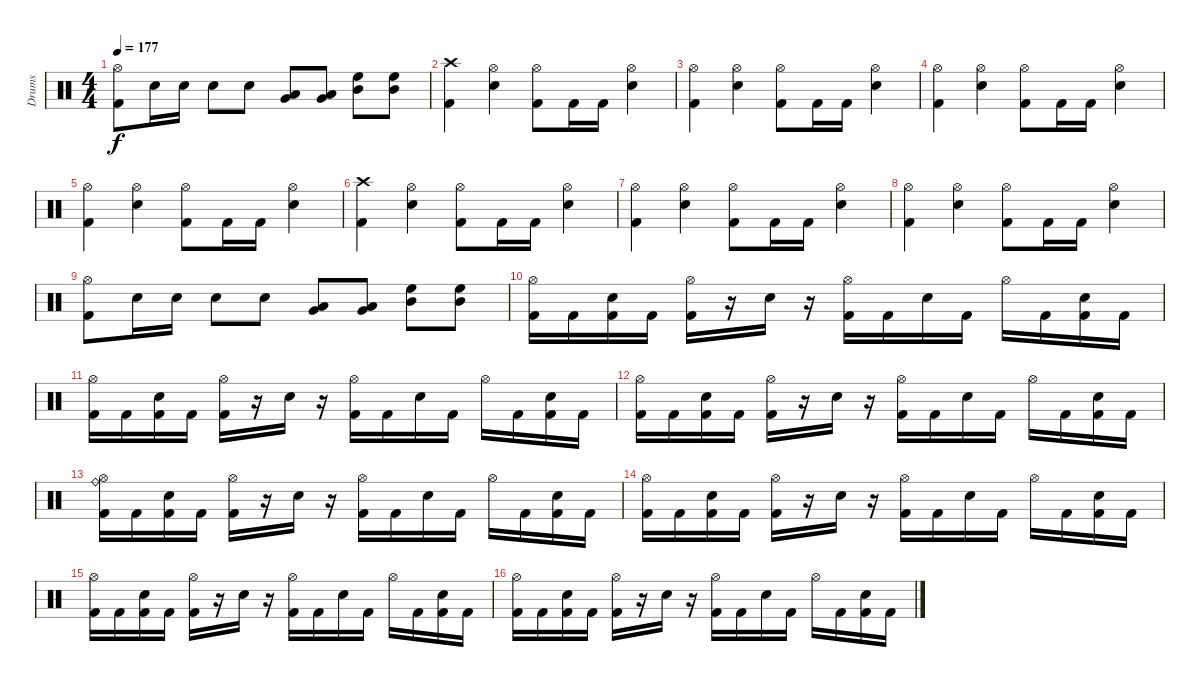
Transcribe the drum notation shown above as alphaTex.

\track ("Drums" "Drums") {instrument percussion}
\staff {score}
\articulation defaults
\ts (4 4)
\tempo 177
\clef neutral
\ks c
("Hi-Hat (open)" "Kick (hit) 2").8{dy f} "Snare (hit) 2".16 "Snare (hit) 2".16 "Snare (hit) 2".8 "Snare (hit) 2".8 ("Low Tom (hit)" "Very Low Tom (hit)").8 ("Low Tom (hit)" "Very Low Tom (hit)").8 ("High Floor Tom (hit)" "Mid Tom (hit)").8 ("High Floor Tom (hit)" "Mid Tom (hit)").8 |
("Kick (hit) 2" "Crash high (hit)").4 ("Snare (hit) 2" "Hi-Hat (open)").4 ("Kick (hit) 2" "Hi-Hat (open)").8 "Kick (hit) 2".16 "Kick (hit) 2".16 ("Snare (hit) 2" "Hi-Hat (open)").4 |
("Kick (hit) 2" "Hi-Hat (open)").4 ("Snare (hit) 2" "Hi-Hat (open)").4 ("Kick (hit) 2" "Hi-Hat (open)").8 "Kick (hit) 2".16 "Kick (hit) 2".16 ("Snare (hit) 2" "Hi-Hat (open)").4 |
("Kick (hit) 2" "Hi-Hat (open)").4 ("Snare (hit) 2" "Hi-Hat (open)").4 ("Kick (hit) 2" "Hi-Hat (open)").8 "Kick (hit) 2".16 "Kick (hit) 2".16 ("Snare (hit) 2" "Hi-Hat (open)").4 |
("Kick (hit) 2" "Hi-Hat (open)").4 ("Snare (hit) 2" "Hi-Hat (open)").4 ("Kick (hit) 2" "Hi-Hat (open)").8 "Kick (hit) 2".16 "Kick (hit) 2".16 ("Snare (hit) 2" "Hi-Hat (open)").4 |
("Kick (hit) 2" "Crash high (hit)").4 ("Snare (hit) 2" "Hi-Hat (open)").4 ("Kick (hit) 2" "Hi-Hat (open)").8 "Kick (hit) 2".16 "Kick (hit) 2".16 ("Snare (hit) 2" "Hi-Hat (open)").4 |
("Kick (hit) 2" "Hi-Hat (open)").4 ("Snare (hit) 2" "Hi-Hat (open)").4 ("Kick (hit) 2" "Hi-Hat (open)").8 "Kick (hit) 2".16 "Kick (hit) 2".16 ("Snare (hit) 2" "Hi-Hat (open)").4 |
("Kick (hit) 2" "Hi-Hat (open)").4 ("Snare (hit) 2" "Hi-Hat (open)").4 ("Kick (hit) 2" "Hi-Hat (open)").8 "Kick (hit) 2".16 "Kick (hit) 2".16 ("Snare (hit) 2" "Hi-Hat (open)").4 |
("Hi-Hat (open)" "Kick (hit) 2").8 "Snare (hit) 2".16 "Snare (hit) 2".16 "Snare (hit) 2".8 "Snare (hit) 2".8 ("Low Tom (hit)" "Very Low Tom (hit)").8 ("Low Tom (hit)" "Very Low Tom (hit)").8 ("High Floor Tom (hit)" "Mid Tom (hit)").8 ("High Floor Tom (hit)" "Mid Tom (hit)").8 |
("Hi-Hat (open)" "Kick (hit) 2").16 "Kick (hit) 2".16 ("Snare (hit) 2" "Kick (hit) 2").16 "Kick (hit) 2".16 ("Hi-Hat (open)" "Kick (hit) 2").16 r.16 "Snare (hit) 2".16 r.16 ("Hi-Hat (open)" "Kick (hit) 2").16 "Kick (hit) 2".16 "Snare (hit) 2".16 "Kick (hit) 2".16 "Hi-Hat (open)".16 "Kick (hit) 2".16 ("Snare (hit) 2" "Kick (hit) 2").16 "Kick (hit) 2".16 |
("Hi-Hat (open)" "Kick (hit) 2").16 "Kick (hit) 2".16 ("Snare (hit) 2" "Kick (hit) 2").16 "Kick (hit) 2".16 ("Hi-Hat (open)" "Kick (hit) 2").16 r.16 "Snare (hit) 2".16 r.16 ("Hi-Hat (open)" "Kick (hit) 2").16 "Kick (hit) 2".16 "Snare (hit) 2".16 "Kick (hit) 2".16 "Hi-Hat (open)".16 "Kick (hit) 2".16 ("Snare (hit) 2" "Kick (hit) 2").16 "Kick (hit) 2".16 |
("Hi-Hat (open)" "Kick (hit) 2").16 "Kick (hit) 2".16 ("Snare (hit) 2" "Kick (hit) 2").16 "Kick (hit) 2".16 ("Hi-Hat (open)" "Kick (hit) 2").16 r.16 "Snare (hit) 2".16 r.16 ("Hi-Hat (open)" "Kick (hit) 2").16 "Kick (hit) 2".16 "Snare (hit) 2".16 "Kick (hit) 2".16 "Hi-Hat (open)".16 "Kick (hit) 2".16 ("Snare (hit) 2" "Kick (hit) 2").16 "Kick (hit) 2".16 |
("Hi-Hat (open)" "Ride (bell)" "Kick (hit) 2").16 "Kick (hit) 2".16 ("Snare (hit) 2" "Kick (hit) 2").16 "Kick (hit) 2".16 ("Hi-Hat (open)" "Kick (hit) 2").16 r.16 "Snare (hit) 2".16 r.16 ("Hi-Hat (open)" "Kick (hit) 2").16 "Kick (hit) 2".16 "Snare (hit) 2".16 "Kick (hit) 2".16 "Hi-Hat (open)".16 "Kick (hit) 2".16 ("Snare (hit) 2" "Kick (hit) 2").16 "Kick (hit) 2".16 |
("Hi-Hat (open)" "Kick (hit) 2").16 "Kick (hit) 2".16 ("Snare (hit) 2" "Kick (hit) 2").16 "Kick (hit) 2".16 ("Hi-Hat (open)" "Kick (hit) 2").16 r.16 "Snare (hit) 2".16 r.16 ("Hi-Hat (open)" "Kick (hit) 2").16 "Kick (hit) 2".16 "Snare (hit) 2".16 "Kick (hit) 2".16 "Hi-Hat (open)".16 "Kick (hit) 2".16 ("Snare (hit) 2" "Kick (hit) 2").16 "Kick (hit) 2".16 |
("Hi-Hat (open)" "Kick (hit) 2").16 "Kick (hit) 2".16 ("Snare (hit) 2" "Kick (hit) 2").16 "Kick (hit) 2".16 ("Hi-Hat (open)" "Kick (hit) 2").16 r.16 "Snare (hit) 2".16 r.16 ("Hi-Hat (open)" "Kick (hit) 2").16 "Kick (hit) 2".16 "Snare (hit) 2".16 "Kick (hit) 2".16 "Hi-Hat (open)".16 "Kick (hit) 2".16 ("Snare (hit) 2" "Kick (hit) 2").16 "Kick (hit) 2".16 |
("Hi-Hat (open)" "Kick (hit) 2").16 "Kick (hit) 2".16 ("Snare (hit) 2" "Kick (hit) 2").16 "Kick (hit) 2".16 ("Hi-Hat (open)" "Kick (hit) 2").16 r.16 "Snare (hit) 2".16 r.16 ("Hi-Hat (open)" "Kick (hit) 2").16 "Kick (hit) 2".16 "Snare (hit) 2".16 "Kick (hit) 2".16 "Hi-Hat (open)".16 "Kick (hit) 2".16 ("Snare (hit) 2" "Kick (hit) 2").16 "Kick (hit) 2".16
